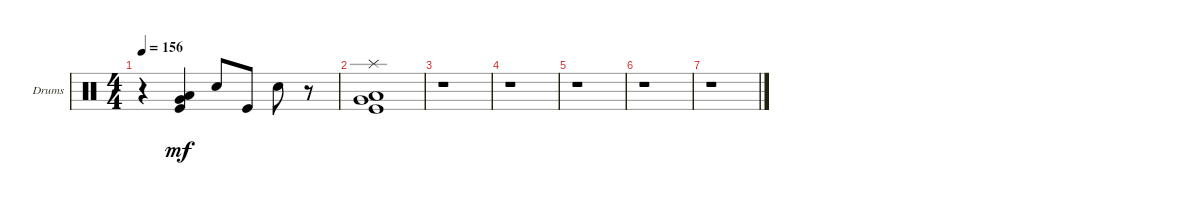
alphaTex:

\defaultSystemsLayout 4
\bracketExtendMode groupsimilarinstruments
\firstSystemTrackNameOrientation horizontal
\otherSystemsTrackNameOrientation horizontal
\track ("Drumkit" "Drums") {instrument percussion}
\staff {score}
\articulation defaults
\ts (4 4)
\tempo 156
\clef neutral
\ks c
r.4{dy mf} ("Low Tom (hit)" "Kick (hit)" "Very Low Tom (hit)").4 "Snare (hit) 2".8 "Kick (hit)".8 "Snare (hit) 2".8 r.8 |
("Low Tom (hit)" "Kick (hit)" "Very Low Tom (hit)" "Splash (hit)").1 |
r.1 |
r.1 |
r.1 |
r.1 |
r.1
